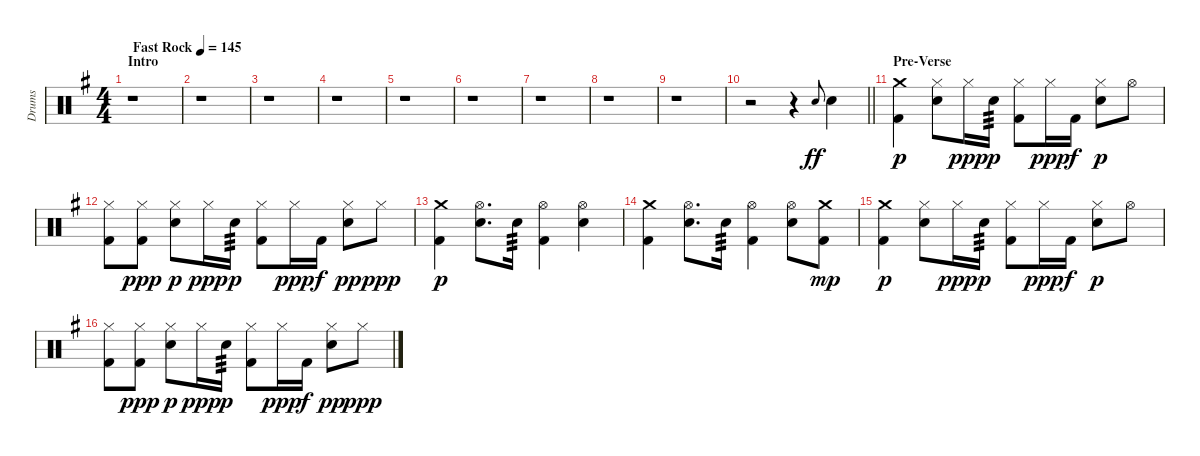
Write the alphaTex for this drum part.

\track ("Drums" "Drums") {instrument percussion}
\staff {score}
\articulation defaults
\ts (4 4)
\section ("" "Intro")
\tempo (145 "Fast Rock")
\clef neutral
\ks g
r.1{dy ff} |
r.1 |
r.1 |
r.1 |
r.1 |
r.1 |
r.1 |
r.1 |
r.1 |
\barLineRight lightlight
r.2 r.4 "Electric Snare (hit)".8{gr onbeat} "Electric Snare (hit)".4 |
\section ("" "Pre-Verse")
("Crash medium (hit)" "Kick (hit) 2").4{dy p} ("Hi-Hat (closed)" "Electric Snare (hit)").8 "Hi-Hat (closed)".16{dy ppp} "Electric Snare (hit)".16{tp 3 dy p} ("Hi-Hat (closed)" "Kick (hit) 2").8 "Hi-Hat (closed)".16{dy ppp} "Kick (hit) 2".16{dy f} ("Hi-Hat (closed)" "Electric Snare (hit)").8{dy p} "Hi-Hat (open)".8 |
("Hi-Hat (closed)" "Kick (hit) 2").8 ("Hi-Hat (closed)" "Kick (hit) 2").8{dy ppp} ("Hi-Hat (closed)" "Electric Snare (hit)").8{dy p} "Hi-Hat (closed)".16{dy ppp} "Electric Snare (hit)".16{tp 3 dy p} ("Hi-Hat (closed)" "Kick (hit) 2").8 "Hi-Hat (closed)".16{dy ppp} "Kick (hit) 2".16{dy f} ("Hi-Hat (closed)" "Electric Snare (hit)").8{dy pp} "Hi-Hat (closed)".8{dy ppp} |
("Crash medium (hit)" "Kick (hit) 2").4{dy p} ("Hi-Hat (open)" "Electric Snare (hit)").8{d} "Electric Snare (hit)".16{tp 3} ("Hi-Hat (open)" "Kick (hit) 2").4 ("Hi-Hat (open)" "Electric Snare (hit)").4 |
("Crash medium (hit)" "Kick (hit) 2").4 ("Hi-Hat (open)" "Electric Snare (hit)").8{d} "Electric Snare (hit)".16{tp 3} ("Kick (hit) 2" "Hi-Hat (open)").4 ("Hi-Hat (open)" "Electric Snare (hit)").8 ("Crash medium (hit)" "Kick (hit) 2").8{dy mp} |
("Crash medium (hit)" "Kick (hit) 2").4{dy p} ("Hi-Hat (closed)" "Electric Snare (hit)").8 "Hi-Hat (closed)".16{dy ppp} "Electric Snare (hit)".16{tp 3 dy p} ("Hi-Hat (closed)" "Kick (hit) 2").8 "Hi-Hat (closed)".16{dy ppp} "Kick (hit) 2".16{dy f} ("Hi-Hat (closed)" "Electric Snare (hit)").8{dy p} "Hi-Hat (open)".8 |
("Hi-Hat (closed)" "Kick (hit) 2").8 ("Hi-Hat (closed)" "Kick (hit) 2").8{dy ppp} ("Hi-Hat (closed)" "Electric Snare (hit)").8{dy p} "Hi-Hat (closed)".16{dy ppp} "Electric Snare (hit)".16{tp 3 dy p} ("Hi-Hat (closed)" "Kick (hit) 2").8 "Hi-Hat (closed)".16{dy ppp} "Kick (hit) 2".16{dy f} ("Hi-Hat (closed)" "Electric Snare (hit)").8{dy pp} "Hi-Hat (closed)".8{dy ppp}
